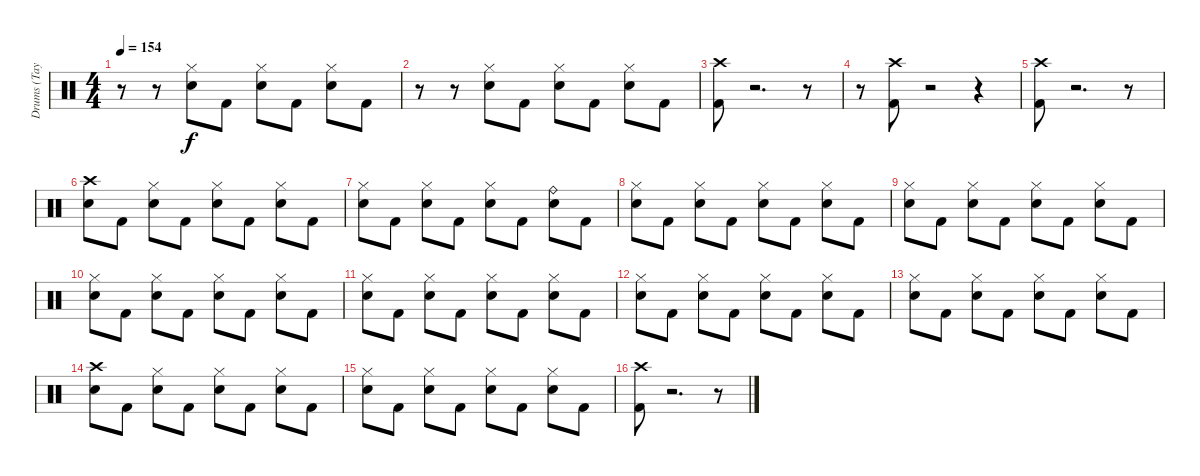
\track ("Drums (Taylor)" "Drums (Tay") {instrument percussion}
\staff {score}
\articulation defaults
\ts (4 4)
\tempo 154
\clef neutral
\ks c
r.8{dy fff} r.8 ("Hi-Hat (closed)" "Electric Snare (hit)").8{dy f} "Kick (hit) 2".8 ("Hi-Hat (closed)" "Electric Snare (hit)").8 "Kick (hit) 2".8 ("Hi-Hat (closed)" "Electric Snare (hit)").8 "Kick (hit) 2".8 |
r.8 r.8 ("Hi-Hat (closed)" "Electric Snare (hit)").8 "Kick (hit) 2".8 ("Hi-Hat (closed)" "Electric Snare (hit)").8 "Kick (hit) 2".8 ("Hi-Hat (closed)" "Electric Snare (hit)").8 "Kick (hit) 2".8 |
("Crash high (hit)" "Kick (hit) 2").8 r.2{d volume 0} r.8 |
r.8 ("Crash high (hit)" "Kick (hit) 2").8{volume 16} r.2{volume 0} r.4 |
("Kick (hit) 2" "Crash high (hit)").8{volume 16} r.2{d volume 0} r.8 |
("Crash high (hit)" "Electric Snare (hit)").8{volume 16} "Kick (hit) 2".8 ("Hi-Hat (closed)" "Electric Snare (hit)").8 "Kick (hit) 2".8 ("Hi-Hat (closed)" "Electric Snare (hit)").8 "Kick (hit) 2".8 ("Hi-Hat (closed)" "Electric Snare (hit)").8 "Kick (hit) 2".8 |
("Hi-Hat (closed)" "Electric Snare (hit)").8 "Kick (hit) 2".8 ("Hi-Hat (closed)" "Electric Snare (hit)").8 "Kick (hit) 2".8 ("Hi-Hat (closed)" "Electric Snare (hit)").8 "Kick (hit) 2".8 ("Ride (bell)" "Electric Snare (hit)").8 "Kick (hit) 2".8 |
("Hi-Hat (closed)" "Electric Snare (hit)").8 "Kick (hit) 2".8 ("Hi-Hat (closed)" "Electric Snare (hit)").8 "Kick (hit) 2".8 ("Hi-Hat (closed)" "Electric Snare (hit)").8 "Kick (hit) 2".8 ("Hi-Hat (closed)" "Electric Snare (hit)").8 "Kick (hit) 2".8 |
("Hi-Hat (closed)" "Electric Snare (hit)").8 "Kick (hit) 2".8 ("Hi-Hat (closed)" "Electric Snare (hit)").8 "Kick (hit) 2".8 ("Hi-Hat (closed)" "Electric Snare (hit)").8 "Kick (hit) 2".8 ("Hi-Hat (closed)" "Electric Snare (hit)").8 "Kick (hit) 2".8 |
("Hi-Hat (closed)" "Electric Snare (hit)").8 "Kick (hit) 2".8 ("Hi-Hat (closed)" "Electric Snare (hit)").8 "Kick (hit) 2".8 ("Hi-Hat (closed)" "Electric Snare (hit)").8 "Kick (hit) 2".8 ("Hi-Hat (closed)" "Electric Snare (hit)").8 "Kick (hit) 2".8 |
("Hi-Hat (closed)" "Electric Snare (hit)").8 "Kick (hit) 2".8 ("Hi-Hat (closed)" "Electric Snare (hit)").8 "Kick (hit) 2".8 ("Hi-Hat (closed)" "Electric Snare (hit)").8 "Kick (hit) 2".8 ("Hi-Hat (closed)" "Electric Snare (hit)").8 "Kick (hit) 2".8 |
("Hi-Hat (closed)" "Electric Snare (hit)").8 "Kick (hit) 2".8 ("Hi-Hat (closed)" "Electric Snare (hit)").8 "Kick (hit) 2".8 ("Hi-Hat (closed)" "Electric Snare (hit)").8 "Kick (hit) 2".8 ("Hi-Hat (closed)" "Electric Snare (hit)").8 "Kick (hit) 2".8 |
("Hi-Hat (closed)" "Electric Snare (hit)").8 "Kick (hit) 2".8 ("Hi-Hat (closed)" "Electric Snare (hit)").8 "Kick (hit) 2".8 ("Hi-Hat (closed)" "Electric Snare (hit)").8 "Kick (hit) 2".8 ("Hi-Hat (closed)" "Electric Snare (hit)").8 "Kick (hit) 2".8 |
("Crash high (hit)" "Electric Snare (hit)").8 "Kick (hit) 2".8 ("Hi-Hat (closed)" "Electric Snare (hit)").8 "Kick (hit) 2".8 ("Hi-Hat (closed)" "Electric Snare (hit)").8 "Kick (hit) 2".8 ("Hi-Hat (closed)" "Electric Snare (hit)").8 "Kick (hit) 2".8 |
("Hi-Hat (closed)" "Electric Snare (hit)").8 "Kick (hit) 2".8 ("Hi-Hat (closed)" "Electric Snare (hit)").8 "Kick (hit) 2".8 ("Hi-Hat (closed)" "Electric Snare (hit)").8 "Kick (hit) 2".8 ("Hi-Hat (closed)" "Electric Snare (hit)").8 "Kick (hit) 2".8 |
("Kick (hit) 2" "Crash high (hit)").8 r.2{d volume 0} r.8
